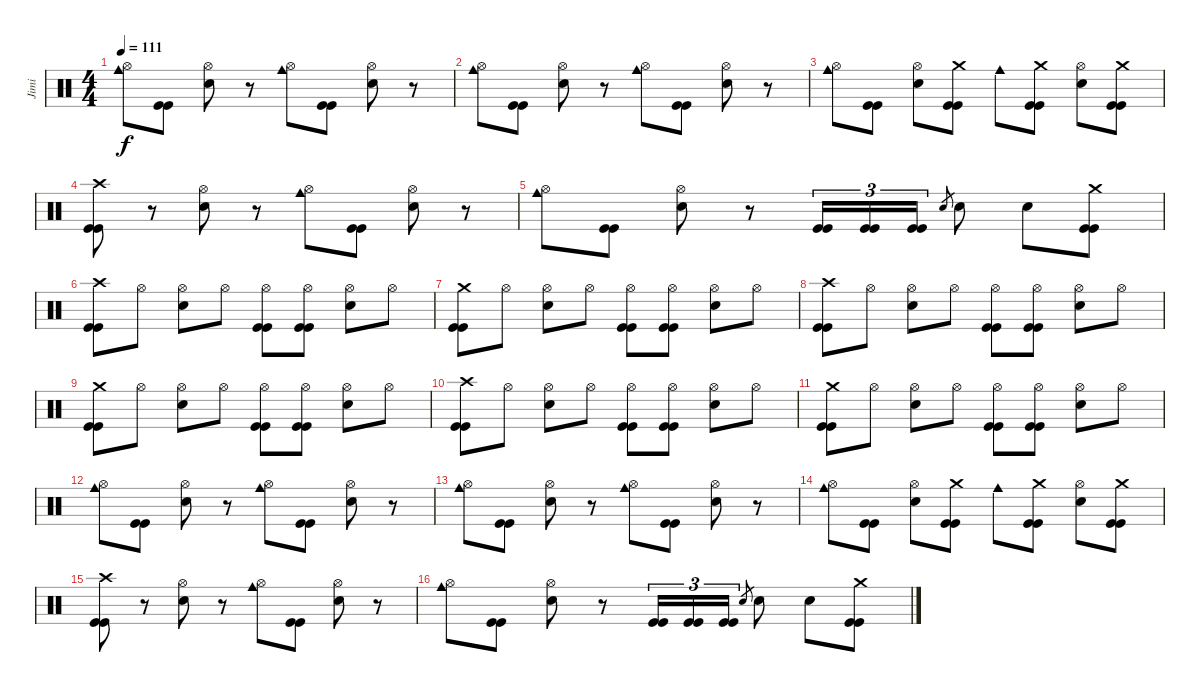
\track ("Jimi" "Jimi") {instrument percussion}
\staff {score}
\articulation defaults
\ts (4 4)
\tempo 111
\clef neutral
\ks c
("Cowbell medium (hit)" "Hi-Hat (open)").8{dy f} ("Kick (hit)" "Kick (hit)").8 ("Hi-Hat (open)" "Electric Snare (hit)").8 r.8 ("Cowbell medium (hit)" "Hi-Hat (open)").8 ("Kick (hit)" "Kick (hit)").8 ("Hi-Hat (open)" "Electric Snare (hit)").8 r.8 |
("Cowbell medium (hit)" "Hi-Hat (open)").8 ("Kick (hit)" "Kick (hit)").8 ("Hi-Hat (open)" "Electric Snare (hit)").8 r.8 ("Cowbell medium (hit)" "Hi-Hat (open)").8 ("Kick (hit)" "Kick (hit)").8 ("Hi-Hat (open)" "Electric Snare (hit)").8 r.8 |
("Cowbell medium (hit)" "Hi-Hat (open)").8 ("Kick (hit)" "Kick (hit)").8 ("Hi-Hat (open)" "Electric Snare (hit)").8 ("Crash medium (hit)" "Kick (hit)" "Kick (hit)").8 "Cowbell medium (hit)".8 ("Crash medium (hit)" "Kick (hit)" "Kick (hit)").8 ("Hi-Hat (open)" "Electric Snare (hit)").8 ("Crash medium (hit)" "Kick (hit)" "Kick (hit)").8 |
("Crash high (hit)" "Kick (hit)" "Kick (hit)").8 r.8 ("Hi-Hat (open)" "Electric Snare (hit)").8 r.8 ("Cowbell medium (hit)" "Hi-Hat (open)").8 ("Kick (hit)" "Kick (hit)").8 ("Hi-Hat (open)" "Electric Snare (hit)").8 r.8 |
("Cowbell medium (hit)" "Hi-Hat (open)").8 ("Kick (hit)" "Kick (hit)").8 ("Hi-Hat (open)" "Electric Snare (hit)").8 r.8 ("Kick (hit)" "Kick (hit)").16{tu (3 2)} ("Kick (hit)" "Kick (hit)").16{tu (3 2)} ("Kick (hit)" "Kick (hit)").16{tu (3 2)} "Electric Snare (hit)".8{gr} "Electric Snare (hit)".8 "Electric Snare (hit)".8 ("Crash medium (hit)" "Kick (hit)" "Kick (hit)").8 |
("Crash high (hit)" "Kick (hit)" "Kick (hit)").8 "Hi-Hat (open)".8 ("Hi-Hat (open)" "Electric Snare (hit)").8 "Hi-Hat (open)".8 ("Hi-Hat (open)" "Kick (hit)" "Kick (hit)").8 ("Hi-Hat (open)" "Kick (hit)" "Kick (hit)").8 ("Hi-Hat (open)" "Electric Snare (hit)").8 "Hi-Hat (open)".8 |
("Crash medium (hit)" "Kick (hit)" "Kick (hit)").8 "Hi-Hat (open)".8 ("Hi-Hat (open)" "Electric Snare (hit)").8 "Hi-Hat (open)".8 ("Hi-Hat (open)" "Kick (hit)" "Kick (hit)").8 ("Hi-Hat (open)" "Kick (hit)" "Kick (hit)").8 ("Hi-Hat (open)" "Electric Snare (hit)").8 "Hi-Hat (open)".8 |
("Crash high (hit)" "Kick (hit)" "Kick (hit)").8 "Hi-Hat (open)".8 ("Hi-Hat (open)" "Electric Snare (hit)").8 "Hi-Hat (open)".8 ("Hi-Hat (open)" "Kick (hit)" "Kick (hit)").8 ("Hi-Hat (open)" "Kick (hit)" "Kick (hit)").8 ("Hi-Hat (open)" "Electric Snare (hit)").8 "Hi-Hat (open)".8 |
("Crash medium (hit)" "Kick (hit)" "Kick (hit)").8 "Hi-Hat (open)".8 ("Hi-Hat (open)" "Electric Snare (hit)").8 "Hi-Hat (open)".8 ("Hi-Hat (open)" "Kick (hit)" "Kick (hit)").8 ("Hi-Hat (open)" "Kick (hit)" "Kick (hit)").8 ("Hi-Hat (open)" "Electric Snare (hit)").8 "Hi-Hat (open)".8 |
("Crash high (hit)" "Kick (hit)" "Kick (hit)").8 "Hi-Hat (open)".8 ("Hi-Hat (open)" "Electric Snare (hit)").8 "Hi-Hat (open)".8 ("Hi-Hat (open)" "Kick (hit)" "Kick (hit)").8 ("Hi-Hat (open)" "Kick (hit)" "Kick (hit)").8 ("Hi-Hat (open)" "Electric Snare (hit)").8 "Hi-Hat (open)".8 |
("Crash medium (hit)" "Kick (hit)" "Kick (hit)").8 "Hi-Hat (open)".8 ("Hi-Hat (open)" "Electric Snare (hit)").8 "Hi-Hat (open)".8 ("Hi-Hat (open)" "Kick (hit)" "Kick (hit)").8 ("Hi-Hat (open)" "Kick (hit)" "Kick (hit)").8 ("Hi-Hat (open)" "Electric Snare (hit)").8 "Hi-Hat (open)".8 |
("Cowbell medium (hit)" "Hi-Hat (open)").8 ("Kick (hit)" "Kick (hit)").8 ("Hi-Hat (open)" "Electric Snare (hit)").8 r.8 ("Cowbell medium (hit)" "Hi-Hat (open)").8 ("Kick (hit)" "Kick (hit)").8 ("Hi-Hat (open)" "Electric Snare (hit)").8 r.8 |
("Cowbell medium (hit)" "Hi-Hat (open)").8 ("Kick (hit)" "Kick (hit)").8 ("Hi-Hat (open)" "Electric Snare (hit)").8 r.8 ("Cowbell medium (hit)" "Hi-Hat (open)").8 ("Kick (hit)" "Kick (hit)").8 ("Hi-Hat (open)" "Electric Snare (hit)").8 r.8 |
("Cowbell medium (hit)" "Hi-Hat (open)").8 ("Kick (hit)" "Kick (hit)").8 ("Hi-Hat (open)" "Electric Snare (hit)").8 ("Crash medium (hit)" "Kick (hit)" "Kick (hit)").8 "Cowbell medium (hit)".8 ("Crash medium (hit)" "Kick (hit)" "Kick (hit)").8 ("Hi-Hat (open)" "Electric Snare (hit)").8 ("Crash medium (hit)" "Kick (hit)" "Kick (hit)").8 |
("Crash high (hit)" "Kick (hit)" "Kick (hit)").8 r.8 ("Hi-Hat (open)" "Electric Snare (hit)").8 r.8 ("Cowbell medium (hit)" "Hi-Hat (open)").8 ("Kick (hit)" "Kick (hit)").8 ("Hi-Hat (open)" "Electric Snare (hit)").8 r.8 |
("Cowbell medium (hit)" "Hi-Hat (open)").8 ("Kick (hit)" "Kick (hit)").8 ("Hi-Hat (open)" "Electric Snare (hit)").8 r.8 ("Kick (hit)" "Kick (hit)").16{tu (3 2)} ("Kick (hit)" "Kick (hit)").16{tu (3 2)} ("Kick (hit)" "Kick (hit)").16{tu (3 2)} "Electric Snare (hit)".8{gr} "Electric Snare (hit)".8 "Electric Snare (hit)".8 ("Crash medium (hit)" "Kick (hit)" "Kick (hit)").8
